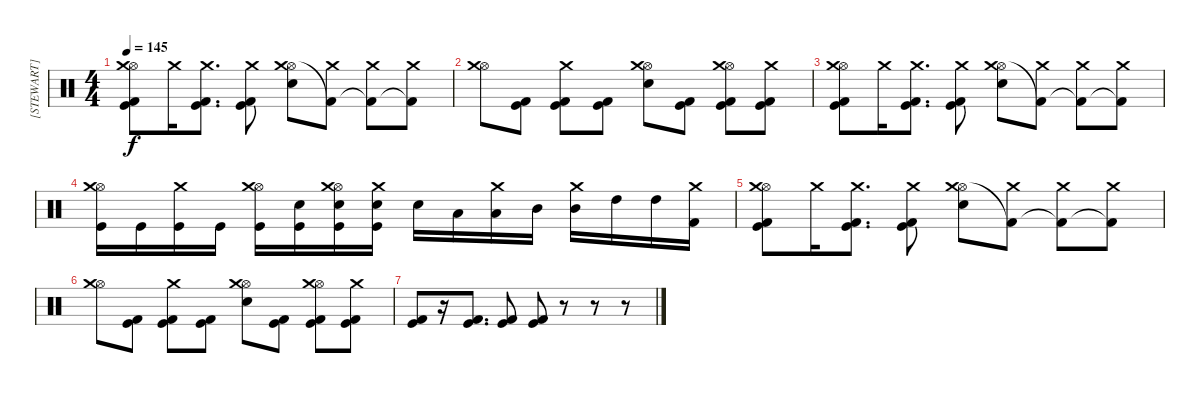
\track ("[STEWART]" "[STEWART]") {instrument percussion}
\staff {score}
\articulation defaults
\ts (4 4)
\tempo 145
\clef neutral
\ks c
("Hi-Hat (open)" "Crash medium (hit)" "Kick (hit) 2" "Kick (hit)").8{dy f} "Crash medium (hit)".16 ("Crash medium (hit)" "Kick (hit) 2" "Kick (hit)").8{d} ("Crash medium (hit)" "Kick (hit) 2" "Kick (hit)").8 ("Hi-Hat (open)" "Crash medium (hit)" "Electric Snare (hit)").8 ("Crash medium (hit)" "Kick (hit) 2"{t}).8 ("Crash medium (hit)" "Kick (hit) 2"{t}).8 ("Crash medium (hit)" "Kick (hit) 2"{t}).8 |
("Hi-Hat (open)" "Crash medium (hit)").8 ("Kick (hit) 2" "Kick (hit)").8 ("Crash medium (hit)" "Kick (hit) 2" "Kick (hit)").8 ("Kick (hit) 2" "Kick (hit)").8 ("Hi-Hat (open)" "Crash medium (hit)" "Electric Snare (hit)").8 ("Kick (hit) 2" "Kick (hit)").8 ("Hi-Hat (open)" "Crash medium (hit)" "Kick (hit) 2" "Kick (hit)").8 ("Crash medium (hit)" "Kick (hit) 2" "Kick (hit)").8 |
("Hi-Hat (open)" "Crash medium (hit)" "Kick (hit) 2" "Kick (hit)").8 "Crash medium (hit)".16 ("Crash medium (hit)" "Kick (hit) 2" "Kick (hit)").8{d} ("Crash medium (hit)" "Kick (hit) 2" "Kick (hit)").8 ("Hi-Hat (open)" "Crash medium (hit)" "Electric Snare (hit)").8 ("Crash medium (hit)" "Kick (hit) 2"{t}).8 ("Crash medium (hit)" "Kick (hit) 2"{t}).8 ("Crash medium (hit)" "Kick (hit) 2"{t}).8 |
("Hi-Hat (open)" "Crash medium (hit)" "Kick (hit)").16 "Kick (hit)".16 ("Crash medium (hit)" "Kick (hit)").16 "Kick (hit)".16 ("Hi-Hat (open)" "Crash medium (hit)" "Kick (hit)").16 ("Electric Snare (hit)" "Kick (hit)").16 ("Hi-Hat (open)" "Crash medium (hit)" "Electric Snare (hit)" "Kick (hit)").16 ("Crash medium (hit)" "Electric Snare (hit)" "Kick (hit)").16 "Electric Snare (hit)".16 "Low Tom (hit)".16 ("Crash medium (hit)" "Low Tom (hit)").16 "Mid Tom (hit)".16 ("Crash medium (hit)" "Mid Tom (hit)").16 "High Tom (hit)".16 "High Tom (hit)".16 ("Crash medium (hit)" "Kick (hit) 2").16 |
("Hi-Hat (open)" "Crash medium (hit)" "Kick (hit) 2" "Kick (hit)").8 "Crash medium (hit)".16 ("Crash medium (hit)" "Kick (hit) 2" "Kick (hit)").8{d} ("Crash medium (hit)" "Kick (hit) 2" "Kick (hit)").8 ("Hi-Hat (open)" "Crash medium (hit)" "Electric Snare (hit)").8 ("Crash medium (hit)" "Kick (hit) 2"{t}).8 ("Crash medium (hit)" "Kick (hit) 2"{t}).8 ("Crash medium (hit)" "Kick (hit) 2"{t}).8 |
("Hi-Hat (open)" "Crash medium (hit)").8 ("Kick (hit) 2" "Kick (hit)").8 ("Crash medium (hit)" "Kick (hit) 2" "Kick (hit)").8 ("Kick (hit) 2" "Kick (hit)").8 ("Hi-Hat (open)" "Crash medium (hit)" "Electric Snare (hit)").8 ("Kick (hit) 2" "Kick (hit)").8 ("Hi-Hat (open)" "Crash medium (hit)" "Kick (hit) 2" "Kick (hit)").8 ("Crash medium (hit)" "Kick (hit) 2" "Kick (hit)").8 |
("Kick (hit) 2" "Kick (hit)").8 r.16 ("Kick (hit) 2" "Kick (hit)").8{d} ("Kick (hit) 2" "Kick (hit)").8 ("Kick (hit) 2" "Kick (hit)").8 r.8 r.8 r.8
